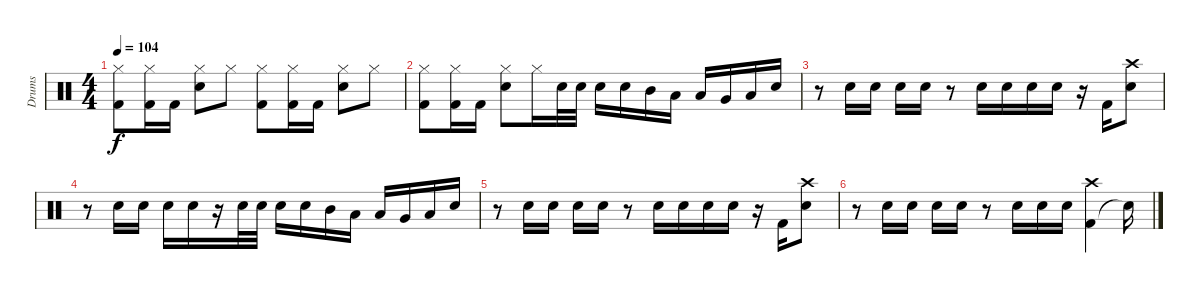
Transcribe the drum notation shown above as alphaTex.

\track ("Drums" "Drums") {instrument percussion}
\staff {score}
\articulation defaults
\ts (4 4)
\tempo 104
\clef neutral
\ks c
("Hi-Hat (closed)" "Kick (hit) 2").8{dy f} ("Hi-Hat (closed)" "Kick (hit) 2").16 "Kick (hit) 2".16 ("Snare (hit) 2" "Hi-Hat (closed)").8 "Hi-Hat (closed)".8 ("Hi-Hat (closed)" "Kick (hit) 2").8 ("Kick (hit) 2" "Hi-Hat (closed)").16 "Kick (hit) 2".16 ("Snare (hit) 2" "Hi-Hat (closed)").8 "Hi-Hat (closed)".8 |
("Hi-Hat (closed)" "Kick (hit) 2").8 ("Kick (hit) 2" "Hi-Hat (closed)").16 "Kick (hit) 2".16 ("Snare (hit) 2" "Hi-Hat (closed)").8 "Hi-Hat (closed)".16 "Snare (hit) 2".32 "Snare (hit) 2".32 "Snare (hit) 2".16 "Snare (hit) 2".16 "Mid Tom (hit)".16 "Low Tom (hit)".16 "Low Tom (hit)".16 "Very Low Tom (hit)".16 "Low Floor Tom (hit)".16 "Snare (hit) 2".16 |
r.8 "Snare (hit) 2".16 "Snare (hit) 2".16 "Snare (hit) 2".16 "Snare (hit) 2".16 r.8 "Snare (hit) 2".16 "Snare (hit) 2".16 "Snare (hit) 2".16 "Snare (hit) 2".16 r.16 "Kick (hit) 2".16 ("Snare (hit) 2" "Crash high (hit)").8 |
r.8 "Snare (hit) 2".16 "Snare (hit) 2".16 "Snare (hit) 2".16 "Snare (hit) 2".16 r.16 "Snare (hit) 2".32 "Snare (hit) 2".32 "Snare (hit) 2".16 "Snare (hit) 2".16 "Mid Tom (hit)".16 "Low Tom (hit)".16 "Low Tom (hit)".16 "Very Low Tom (hit)".16 "Low Floor Tom (hit)".16 "Snare (hit) 2".16 |
r.8 "Snare (hit) 2".16 "Snare (hit) 2".16 "Snare (hit) 2".16 "Snare (hit) 2".16 r.8 "Snare (hit) 2".16 "Snare (hit) 2".16 "Snare (hit) 2".16 "Snare (hit) 2".16 r.16 "Kick (hit) 2".16 ("Snare (hit) 2" "Crash high (hit)").8 |
r.8 "Snare (hit) 2".16 "Snare (hit) 2".16 "Snare (hit) 2".16 "Snare (hit) 2".16 r.8 "Snare (hit) 2".16 "Snare (hit) 2".16 "Snare (hit) 2".16 ("Kick (hit) 2" "Crash high (hit)").4 "Snare (hit)"{t}.16
